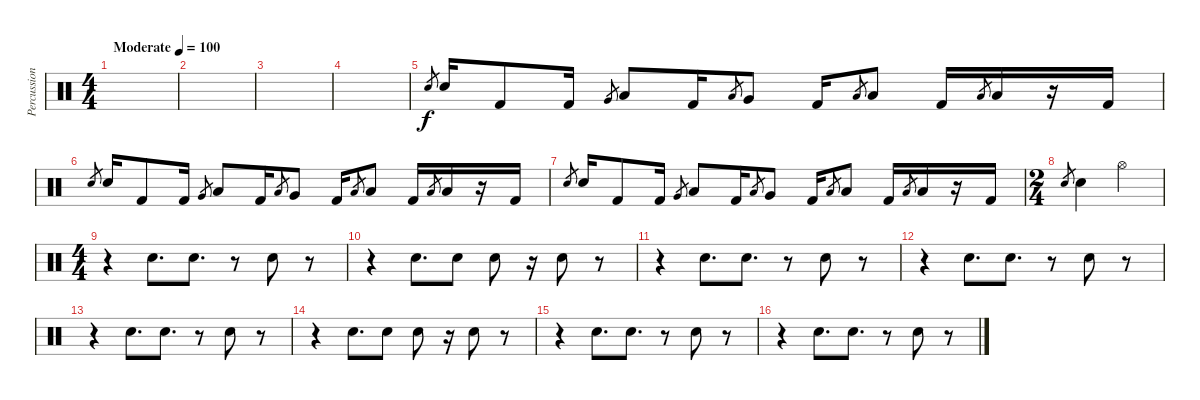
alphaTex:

\track ("Percussion" "Percussion") {instrument percussion}
\staff {score}
\articulation defaults
\ts (4 4)
\tempo (100 "Moderate")
\clef neutral
\ks c
|
|
|
|
"Snare (hit) 2".8{gr} "Snare (hit) 2".16 "Kick (hit) 2".8 "Kick (hit) 2".16 "Very Low Tom (hit)".8{gr} "Low Tom (hit)".8 "Kick (hit) 2".16 "Low Floor Tom (hit)".8{gr} "Very Low Tom (hit)".8 "Kick (hit) 2".16 "Low Floor Tom (hit)".8{gr} "Low Floor Tom (hit)".8 "Kick (hit) 2".16 "Low Floor Tom (hit)".8{gr} "Low Floor Tom (hit)".16 r.16 "Kick (hit) 2".16 |
"Snare (hit) 2".8{gr} "Snare (hit) 2".16 "Kick (hit) 2".8 "Kick (hit) 2".16 "Very Low Tom (hit)".8{gr} "Low Tom (hit)".8 "Kick (hit) 2".16 "Low Floor Tom (hit)".8{gr} "Very Low Tom (hit)".8 "Kick (hit) 2".16 "Low Floor Tom (hit)".8{gr} "Low Floor Tom (hit)".8 "Kick (hit) 2".16 "Low Floor Tom (hit)".8{gr} "Low Floor Tom (hit)".16 r.16 "Kick (hit) 2".16 |
"Snare (hit) 2".8{gr} "Snare (hit) 2".16 "Kick (hit) 2".8 "Kick (hit) 2".16 "Very Low Tom (hit)".8{gr} "Low Tom (hit)".8 "Kick (hit) 2".16 "Low Floor Tom (hit)".8{gr} "Very Low Tom (hit)".8 "Kick (hit) 2".16 "Low Floor Tom (hit)".8{gr} "Low Floor Tom (hit)".8 "Kick (hit) 2".16 "Low Floor Tom (hit)".8{gr} "Low Floor Tom (hit)".16 r.16 "Kick (hit) 2".16 |
\ts (2 4)
"Snare (hit) 2".8{gr} "Snare (hit) 2".4 "Hi-Hat (open)".4 |
\ts (4 4)
r.4 "Snare (hit) 2".8{d} "Snare (hit) 2".8{d} r.8 "Snare (hit) 2".8 r.8 |
r.4 "Snare (hit) 2".8{d} "Snare (hit) 2".8 "Snare (hit) 2".8 r.16 "Snare (hit) 2".8 r.8 |
r.4 "Snare (hit) 2".8{d} "Snare (hit) 2".8{d} r.8 "Snare (hit) 2".8 r.8 |
r.4 "Snare (hit) 2".8{d} "Snare (hit) 2".8{d} r.8 "Snare (hit) 2".8 r.8 |
r.4 "Snare (hit) 2".8{d} "Snare (hit) 2".8{d} r.8 "Snare (hit) 2".8 r.8 |
r.4 "Snare (hit) 2".8{d} "Snare (hit) 2".8 "Snare (hit) 2".8 r.16 "Snare (hit) 2".8 r.8 |
r.4 "Snare (hit) 2".8{d} "Snare (hit) 2".8{d} r.8 "Snare (hit) 2".8 r.8 |
r.4 "Snare (hit) 2".8{d} "Snare (hit) 2".8{d} r.8 "Snare (hit) 2".8 r.8
